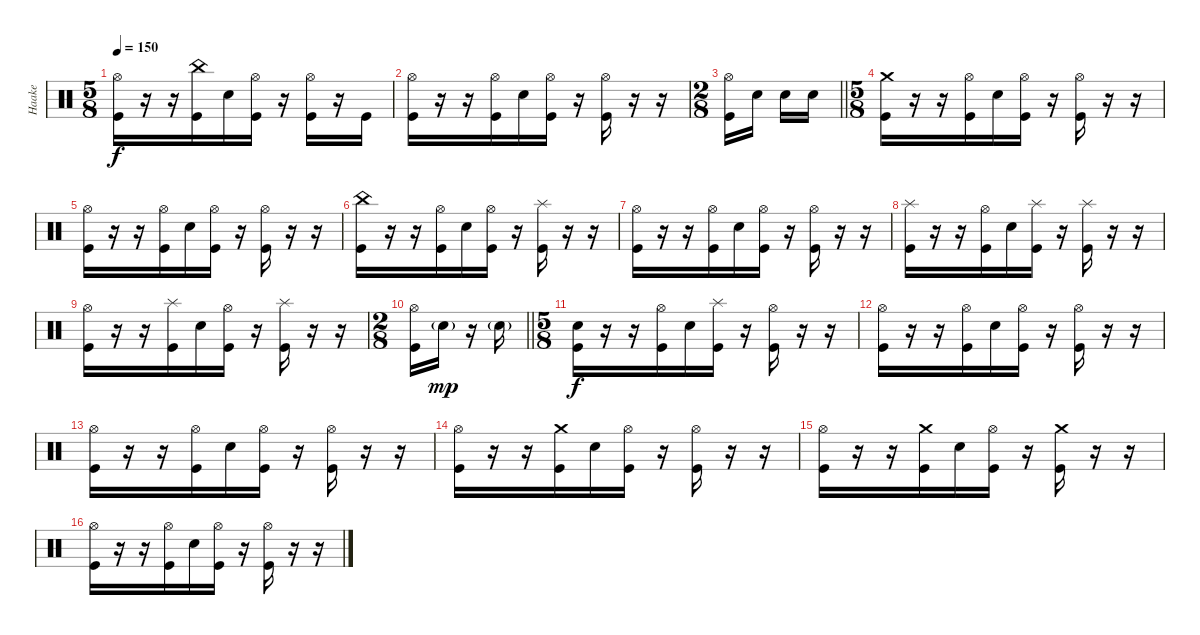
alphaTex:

\track ("Haake" "Haake") {instrument percussion}
\staff {score}
\articulation defaults
\ts (5 8)
\tempo 150
\clef neutral
\ks c
("Hi-Hat (open)" "Kick (hit)").16{dy f} r.16 r.16 ("China (hit)" "Kick (hit)").16 "Snare (hit) 2".16 ("Hi-Hat (open)" "Kick (hit)").16 r.16 ("Hi-Hat (open)" "Kick (hit)").16 r.16 "Kick (hit)".16 |
("Hi-Hat (open)" "Kick (hit)").16 r.16 r.16 ("Hi-Hat (open)" "Kick (hit)").16 "Snare (hit) 2".16 ("Hi-Hat (open)" "Kick (hit)").16 r.16 ("Hi-Hat (open)" "Kick (hit)").16 r.16 r.16 |
\ts (2 8)
\barLineRight lightlight
("Hi-Hat (open)" "Kick (hit)").16 "Snare (hit) 2".16 "Snare (hit) 2".16 "Snare (hit) 2".16 |
\ts (5 8)
("Crash medium (hit)" "Kick (hit)").16 r.16 r.16 ("Hi-Hat (open)" "Kick (hit)").16 "Snare (hit) 2".16 ("Hi-Hat (open)" "Kick (hit)").16 r.16 ("Hi-Hat (open)" "Kick (hit)").16 r.16 r.16 |
("Hi-Hat (open)" "Kick (hit)").16 r.16 r.16 ("Hi-Hat (open)" "Kick (hit)").16 "Snare (hit) 2".16 ("Hi-Hat (open)" "Kick (hit)").16 r.16 ("Hi-Hat (open)" "Kick (hit)").16 r.16 r.16 |
("China (hit)" "Kick (hit)").16 r.16 r.16 ("Hi-Hat (open)" "Kick (hit)").16 "Snare (hit) 2".16 ("Hi-Hat (open)" "Kick (hit)").16 r.16 ("Splash (hit)" "Kick (hit)").16 r.16 r.16 |
("Hi-Hat (open)" "Kick (hit)").16 r.16 r.16 ("Hi-Hat (open)" "Kick (hit)").16 "Snare (hit) 2".16 ("Hi-Hat (open)" "Kick (hit)").16 r.16 ("Hi-Hat (open)" "Kick (hit)").16 r.16 r.16 |
("Splash (hit)" "Kick (hit)").16 r.16 r.16 ("Hi-Hat (open)" "Kick (hit)").16 "Snare (hit) 2".16 ("Splash (hit)" "Kick (hit)").16 r.16 ("Splash (hit)" "Kick (hit)").16 r.16 r.16 |
("Hi-Hat (open)" "Kick (hit)").16 r.16 r.16 ("Splash (hit)" "Kick (hit)").16 "Snare (hit) 2".16 ("Hi-Hat (open)" "Kick (hit)").16 r.16 ("Splash (hit)" "Kick (hit)").16 r.16 r.16 |
\ts (2 8)
\barLineRight lightlight
("Hi-Hat (open)" "Kick (hit)").16 "Snare (hit) 2"{g}.16{dy mp} r.16 "Snare (hit) 2"{g}.16 |
\ts (5 8)
("Snare (hit) 2" "Kick (hit)").16{dy f} r.16 r.16 ("Hi-Hat (open)" "Kick (hit)").16 "Snare (hit) 2".16 ("Splash (hit)" "Kick (hit)").16 r.16 ("Hi-Hat (open)" "Kick (hit)").16 r.16 r.16 |
("Hi-Hat (open)" "Kick (hit)").16 r.16 r.16 ("Hi-Hat (open)" "Kick (hit)").16 "Snare (hit) 2".16 ("Hi-Hat (open)" "Kick (hit)").16 r.16 ("Hi-Hat (open)" "Kick (hit)").16 r.16 r.16 |
("Hi-Hat (open)" "Kick (hit)").16 r.16 r.16 ("Hi-Hat (open)" "Kick (hit)").16 "Snare (hit) 2".16 ("Hi-Hat (open)" "Kick (hit)").16 r.16 ("Hi-Hat (open)" "Kick (hit)").16 r.16 r.16 |
("Hi-Hat (open)" "Kick (hit)").16 r.16 r.16 ("Crash medium (hit)" "Kick (hit)").16 "Snare (hit) 2".16 ("Hi-Hat (open)" "Kick (hit)").16 r.16 ("Hi-Hat (open)" "Kick (hit)").16 r.16 r.16 |
("Hi-Hat (open)" "Kick (hit)").16 r.16 r.16 ("Crash medium (hit)" "Kick (hit)").16 "Snare (hit) 2".16 ("Hi-Hat (open)" "Kick (hit)").16 r.16 ("Crash medium (hit)" "Kick (hit)").16 r.16 r.16 |
("Hi-Hat (open)" "Kick (hit)").16 r.16 r.16 ("Hi-Hat (open)" "Kick (hit)").16 "Snare (hit) 2".16 ("Hi-Hat (open)" "Kick (hit)").16 r.16 ("Hi-Hat (open)" "Kick (hit)").16 r.16 r.16
